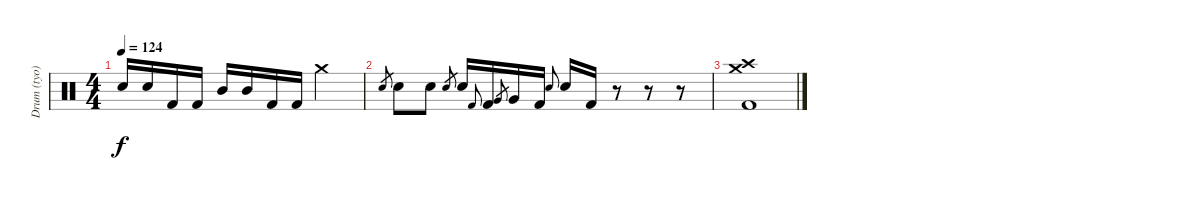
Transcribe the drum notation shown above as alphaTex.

\track ("Drum (tyo)" "Drum (tyo)") {instrument percussion}
\staff {score}
\articulation defaults
\ts (4 4)
\tempo 124
\clef neutral
\ks c "Electric Snare (hit)".16{dy f} "Electric Snare (hit)".16 "Kick (hit) 2".16 "Kick (hit) 2".16 "Mid Tom (hit)".16 "Mid Tom (hit)".16 "Kick (hit) 2".16 "Kick (hit) 2".16 "Crash medium (hit)".2
|
"Electric Snare (hit)".8{gr} "Electric Snare (hit)".8 "Electric Snare (hit)".8 "Electric Snare (hit)".8{gr} "Electric Snare (hit)".16 "Kick (hit) 2".8{gr onbeat} "Kick (hit) 2".16 "Very Low Tom (hit)".8{gr} "Very Low Tom (hit)".16 "Kick (hit) 2".16 "Electric Snare (hit)".8{gr onbeat} "Electric Snare (hit)".16 "Kick (hit) 2".16 r.8 r.8 r.8 |
("Kick (hit) 2" "Crash medium (hit)" "Crash high (hit)").1
